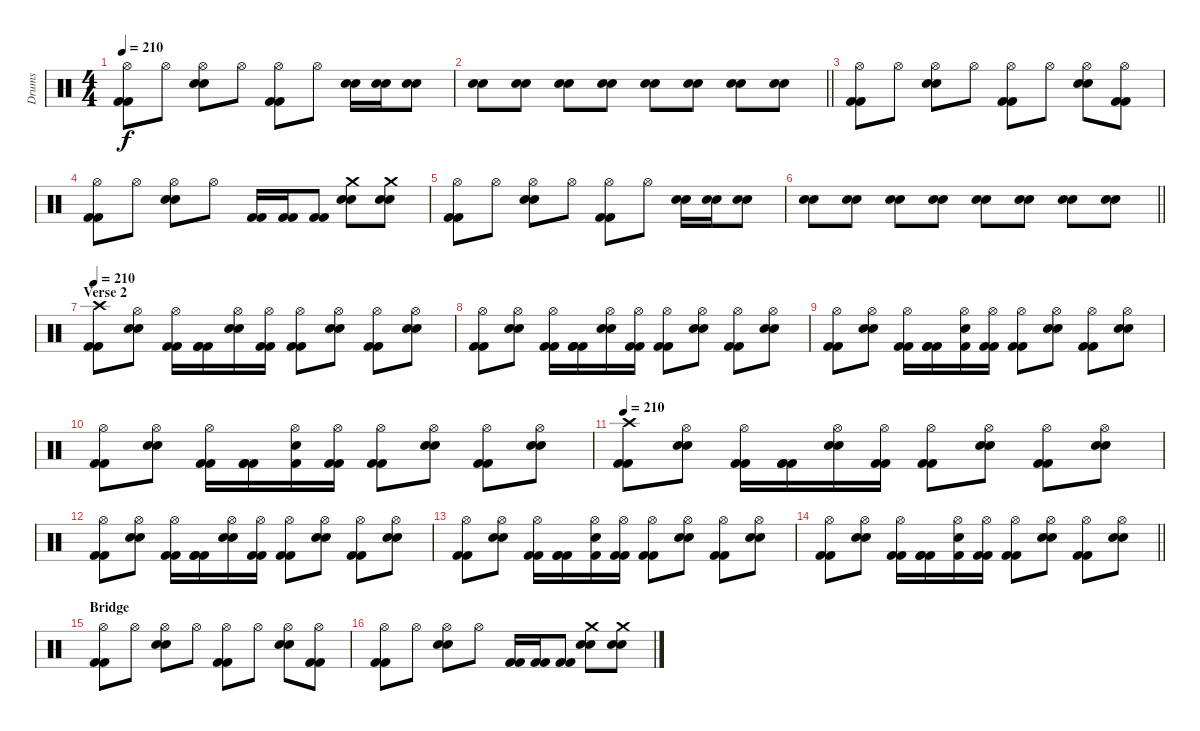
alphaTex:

\track ("Drums" "Drums") {instrument percussion}
\staff {score}
\articulation defaults
\ts (4 4)
\tempo 210
\clef neutral
\ks c
("Hi-Hat (open)" "Kick (hit) 2" "Kick (hit) 2").8{dy f} "Hi-Hat (open)".8 ("Hi-Hat (open)" "Snare (hit) 2" "Snare (hit) 2").8 "Hi-Hat (open)".8 ("Hi-Hat (open)" "Kick (hit) 2" "Kick (hit) 2").8 "Hi-Hat (open)".8 ("Snare (hit) 2" "Snare (hit) 2").16 ("Snare (hit) 2" "Snare (hit) 2").16 ("Snare (hit) 2" "Snare (hit) 2").8 |
\barLineRight lightlight
("Snare (hit) 2" "Snare (hit) 2").8 ("Snare (hit) 2" "Snare (hit) 2").8 ("Snare (hit) 2" "Snare (hit) 2").8 ("Snare (hit) 2" "Snare (hit) 2").8 ("Snare (hit) 2" "Snare (hit) 2").8 ("Snare (hit) 2" "Snare (hit) 2").8 ("Snare (hit) 2" "Snare (hit) 2").8 ("Snare (hit) 2" "Snare (hit) 2").8 |
("Hi-Hat (open)" "Kick (hit) 2" "Kick (hit) 2").8 "Hi-Hat (open)".8 ("Hi-Hat (open)" "Snare (hit) 2" "Snare (hit) 2").8 "Hi-Hat (open)".8 ("Hi-Hat (open)" "Kick (hit) 2" "Kick (hit) 2").8 "Hi-Hat (open)".8 ("Hi-Hat (open)" "Snare (hit) 2" "Snare (hit) 2").8 ("Hi-Hat (open)" "Kick (hit) 2" "Kick (hit) 2").8 |
("Hi-Hat (open)" "Kick (hit) 2" "Kick (hit) 2").8 "Hi-Hat (open)".8 ("Hi-Hat (open)" "Snare (hit) 2" "Snare (hit) 2").8 "Hi-Hat (open)".8 ("Kick (hit) 2" "Kick (hit) 2").16 ("Kick (hit) 2" "Kick (hit) 2").16 ("Kick (hit) 2" "Kick (hit) 2").8 ("Crash medium (hit)" "Snare (hit) 2" "Snare (hit) 2").8 ("Crash medium (hit)" "Snare (hit) 2" "Snare (hit) 2").8 |
("Hi-Hat (open)" "Kick (hit) 2" "Kick (hit) 2").8 "Hi-Hat (open)".8 ("Hi-Hat (open)" "Snare (hit) 2" "Snare (hit) 2").8 "Hi-Hat (open)".8 ("Hi-Hat (open)" "Kick (hit) 2" "Kick (hit) 2").8 "Hi-Hat (open)".8 ("Snare (hit) 2" "Snare (hit) 2").16 ("Snare (hit) 2" "Snare (hit) 2").16 ("Snare (hit) 2" "Snare (hit) 2").8 |
\barLineRight lightlight
("Snare (hit) 2" "Snare (hit) 2").8 ("Snare (hit) 2" "Snare (hit) 2").8 ("Snare (hit) 2" "Snare (hit) 2").8 ("Snare (hit) 2" "Snare (hit) 2").8 ("Snare (hit) 2" "Snare (hit) 2").8 ("Snare (hit) 2" "Snare (hit) 2").8 ("Snare (hit) 2" "Snare (hit) 2").8 ("Snare (hit) 2" "Snare (hit) 2").8 |
\section ("" "Verse 2")
\tempo 210
("Crash high (hit)" "Kick (hit) 2" "Kick (hit) 2").8 ("Hi-Hat (open)" "Snare (hit) 2" "Snare (hit) 2").8 ("Hi-Hat (open)" "Kick (hit) 2" "Kick (hit) 2").16 ("Kick (hit) 2" "Kick (hit) 2" "Kick (hit) 2").16 ("Hi-Hat (open)" "Snare (hit) 2" "Snare (hit) 2").16 ("Hi-Hat (open)" "Kick (hit) 2" "Kick (hit) 2").16 ("Hi-Hat (open)" "Kick (hit) 2" "Kick (hit) 2").8 ("Hi-Hat (open)" "Snare (hit) 2" "Snare (hit) 2").8 ("Hi-Hat (open)" "Kick (hit) 2" "Kick (hit) 2").8 ("Hi-Hat (open)" "Snare (hit) 2" "Snare (hit) 2").8 |
("Hi-Hat (open)" "Kick (hit) 2" "Kick (hit) 2").8 ("Hi-Hat (open)" "Snare (hit) 2" "Snare (hit) 2").8 ("Hi-Hat (open)" "Kick (hit) 2" "Kick (hit) 2").16 ("Kick (hit) 2" "Kick (hit) 2" "Kick (hit) 2").16 ("Hi-Hat (open)" "Snare (hit) 2" "Snare (hit) 2").16 ("Hi-Hat (open)" "Kick (hit) 2" "Kick (hit) 2").16 ("Hi-Hat (open)" "Kick (hit) 2" "Kick (hit) 2").8 ("Hi-Hat (open)" "Snare (hit) 2" "Snare (hit) 2").8 ("Hi-Hat (open)" "Kick (hit) 2" "Kick (hit) 2").8 ("Hi-Hat (open)" "Snare (hit) 2" "Snare (hit) 2").8 |
("Hi-Hat (open)" "Kick (hit) 2" "Kick (hit) 2").8 ("Hi-Hat (open)" "Snare (hit) 2" "Snare (hit) 2").8 ("Hi-Hat (open)" "Kick (hit) 2" "Kick (hit) 2").16 ("Kick (hit) 2" "Kick (hit) 2" "Kick (hit) 2").16 ("Hi-Hat (open)" "Snare (hit) 2" "Kick (hit) 2").16 ("Hi-Hat (open)" "Kick (hit) 2" "Kick (hit) 2").16 ("Hi-Hat (open)" "Kick (hit) 2" "Kick (hit) 2").8 ("Hi-Hat (open)" "Snare (hit) 2" "Snare (hit) 2").8 ("Hi-Hat (open)" "Kick (hit) 2" "Kick (hit) 2").8 ("Hi-Hat (open)" "Snare (hit) 2" "Snare (hit) 2").8 |
("Hi-Hat (open)" "Kick (hit) 2" "Kick (hit) 2").8 ("Hi-Hat (open)" "Snare (hit) 2" "Snare (hit) 2").8 ("Hi-Hat (open)" "Kick (hit) 2" "Kick (hit) 2").16 ("Kick (hit) 2" "Kick (hit) 2" "Kick (hit) 2").16 ("Hi-Hat (open)" "Snare (hit) 2" "Kick (hit) 2").16 ("Hi-Hat (open)" "Kick (hit) 2" "Kick (hit) 2").16 ("Hi-Hat (open)" "Kick (hit) 2" "Kick (hit) 2").8 ("Hi-Hat (open)" "Snare (hit) 2" "Snare (hit) 2").8 ("Hi-Hat (open)" "Kick (hit) 2" "Kick (hit) 2").8 ("Hi-Hat (open)" "Snare (hit) 2" "Snare (hit) 2").8 |
\tempo 210
("Crash high (hit)" "Kick (hit) 2" "Kick (hit) 2").8 ("Hi-Hat (open)" "Snare (hit) 2" "Snare (hit) 2").8 ("Hi-Hat (open)" "Kick (hit) 2" "Kick (hit) 2").16 ("Kick (hit) 2" "Kick (hit) 2" "Kick (hit) 2").16 ("Hi-Hat (open)" "Snare (hit) 2" "Snare (hit) 2").16 ("Hi-Hat (open)" "Kick (hit) 2" "Kick (hit) 2").16 ("Hi-Hat (open)" "Kick (hit) 2" "Kick (hit) 2").8 ("Hi-Hat (open)" "Snare (hit) 2" "Snare (hit) 2").8 ("Hi-Hat (open)" "Kick (hit) 2" "Kick (hit) 2").8 ("Hi-Hat (open)" "Snare (hit) 2" "Snare (hit) 2").8 |
("Hi-Hat (open)" "Kick (hit) 2" "Kick (hit) 2").8 ("Hi-Hat (open)" "Snare (hit) 2" "Snare (hit) 2").8 ("Hi-Hat (open)" "Kick (hit) 2" "Kick (hit) 2").16 ("Kick (hit) 2" "Kick (hit) 2" "Kick (hit) 2").16 ("Hi-Hat (open)" "Snare (hit) 2" "Snare (hit) 2").16 ("Hi-Hat (open)" "Kick (hit) 2" "Kick (hit) 2").16 ("Hi-Hat (open)" "Kick (hit) 2" "Kick (hit) 2").8 ("Hi-Hat (open)" "Snare (hit) 2" "Snare (hit) 2").8 ("Hi-Hat (open)" "Kick (hit) 2" "Kick (hit) 2").8 ("Hi-Hat (open)" "Snare (hit) 2" "Snare (hit) 2").8 |
("Hi-Hat (open)" "Kick (hit) 2" "Kick (hit) 2").8 ("Hi-Hat (open)" "Snare (hit) 2" "Snare (hit) 2").8 ("Hi-Hat (open)" "Kick (hit) 2" "Kick (hit) 2").16 ("Kick (hit) 2" "Kick (hit) 2" "Kick (hit) 2").16 ("Hi-Hat (open)" "Snare (hit) 2" "Kick (hit) 2").16 ("Hi-Hat (open)" "Kick (hit) 2" "Kick (hit) 2").16 ("Hi-Hat (open)" "Kick (hit) 2" "Kick (hit) 2").8 ("Hi-Hat (open)" "Snare (hit) 2" "Snare (hit) 2").8 ("Hi-Hat (open)" "Kick (hit) 2" "Kick (hit) 2").8 ("Hi-Hat (open)" "Snare (hit) 2" "Snare (hit) 2").8 |
\barLineRight lightlight
("Hi-Hat (open)" "Kick (hit) 2" "Kick (hit) 2").8 ("Hi-Hat (open)" "Snare (hit) 2" "Snare (hit) 2").8 ("Hi-Hat (open)" "Kick (hit) 2" "Kick (hit) 2").16 ("Kick (hit) 2" "Kick (hit) 2" "Kick (hit) 2").16 ("Hi-Hat (open)" "Snare (hit) 2" "Kick (hit) 2").16 ("Hi-Hat (open)" "Kick (hit) 2" "Kick (hit) 2").16 ("Hi-Hat (open)" "Kick (hit) 2" "Kick (hit) 2").8 ("Hi-Hat (open)" "Snare (hit) 2" "Snare (hit) 2").8 ("Hi-Hat (open)" "Kick (hit) 2" "Kick (hit) 2").8 ("Hi-Hat (open)" "Snare (hit) 2" "Snare (hit) 2").8 |
\section ("" "Bridge")
("Hi-Hat (open)" "Kick (hit) 2" "Kick (hit) 2").8 "Hi-Hat (open)".8 ("Hi-Hat (open)" "Snare (hit) 2" "Snare (hit) 2").8 "Hi-Hat (open)".8 ("Hi-Hat (open)" "Kick (hit) 2" "Kick (hit) 2").8 "Hi-Hat (open)".8 ("Hi-Hat (open)" "Snare (hit) 2" "Snare (hit) 2").8 ("Hi-Hat (open)" "Kick (hit) 2" "Kick (hit) 2").8 |
("Hi-Hat (open)" "Kick (hit) 2" "Kick (hit) 2").8 "Hi-Hat (open)".8 ("Hi-Hat (open)" "Snare (hit) 2" "Snare (hit) 2").8 "Hi-Hat (open)".8 ("Kick (hit) 2" "Kick (hit) 2").16 ("Kick (hit) 2" "Kick (hit) 2").16 ("Kick (hit) 2" "Kick (hit) 2").8 ("Crash medium (hit)" "Snare (hit) 2" "Snare (hit) 2").8 ("Crash medium (hit)" "Snare (hit) 2" "Snare (hit) 2").8
